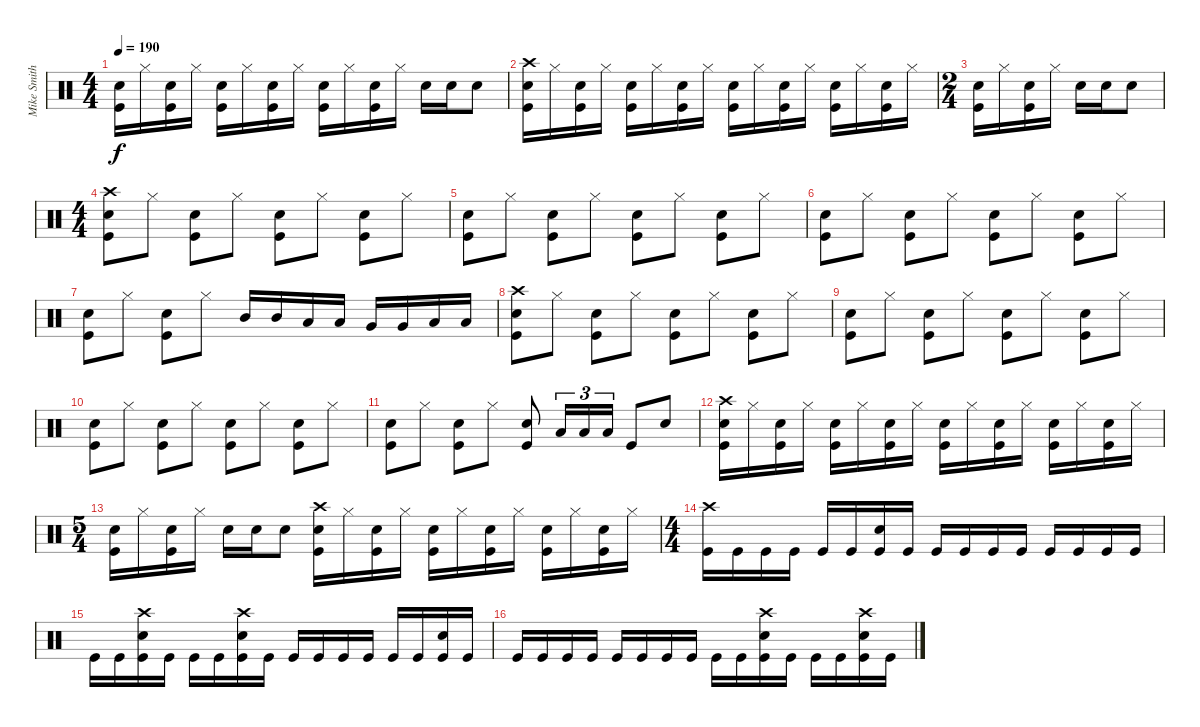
\track ("Mike Smith" "Mike Smith") {instrument percussion}
\staff
\articulation defaults
\ts (4 4)
\tempo 190
\clef neutral
\ks c
("Snare (hit) 2" "Kick (hit)").16{dy f} "Hi-Hat (closed)".16 ("Snare (hit) 2" "Kick (hit)").16 "Hi-Hat (closed)".16 ("Snare (hit) 2" "Kick (hit)").16 "Hi-Hat (closed)".16 ("Snare (hit) 2" "Kick (hit)").16 "Hi-Hat (closed)".16 ("Snare (hit) 2" "Kick (hit)").16 "Hi-Hat (closed)".16 ("Snare (hit) 2" "Kick (hit)").16 "Hi-Hat (closed)".16 "Snare (hit) 2".16 "Snare (hit) 2".16 "Snare (hit) 2".8 |
("Crash high (hit)" "Snare (hit) 2" "Kick (hit)").16 "Hi-Hat (closed)".16 ("Snare (hit) 2" "Kick (hit)").16 "Hi-Hat (closed)".16 ("Snare (hit) 2" "Kick (hit)").16 "Hi-Hat (closed)".16 ("Snare (hit) 2" "Kick (hit)").16 "Hi-Hat (closed)".16 ("Snare (hit) 2" "Kick (hit)").16 "Hi-Hat (closed)".16 ("Snare (hit) 2" "Kick (hit)").16 "Hi-Hat (closed)".16 ("Snare (hit) 2" "Kick (hit)").16 "Hi-Hat (closed)".16 ("Snare (hit) 2" "Kick (hit)").16 "Hi-Hat (closed)".16 |
\ts (2 4)
("Snare (hit) 2" "Kick (hit)").16 "Hi-Hat (closed)".16 ("Snare (hit) 2" "Kick (hit)").16 "Hi-Hat (closed)".16 "Snare (hit) 2".16 "Snare (hit) 2".16 "Snare (hit) 2".8 |
\ts (4 4)
("Crash high (hit)" "Snare (hit) 2" "Kick (hit)").8 "Hi-Hat (closed)".8 ("Snare (hit) 2" "Kick (hit)").8 "Hi-Hat (closed)".8 ("Snare (hit) 2" "Kick (hit)").8 "Hi-Hat (closed)".8 ("Snare (hit) 2" "Kick (hit)").8 "Hi-Hat (closed)".8 |
("Snare (hit) 2" "Kick (hit)").8 "Hi-Hat (closed)".8 ("Snare (hit) 2" "Kick (hit)").8 "Hi-Hat (closed)".8 ("Snare (hit) 2" "Kick (hit)").8 "Hi-Hat (closed)".8 ("Snare (hit) 2" "Kick (hit)").8 "Hi-Hat (closed)".8 |
("Snare (hit) 2" "Kick (hit)").8 "Hi-Hat (closed)".8 ("Snare (hit) 2" "Kick (hit)").8 "Hi-Hat (closed)".8 ("Snare (hit) 2" "Kick (hit)").8 "Hi-Hat (closed)".8 ("Snare (hit) 2" "Kick (hit)").8 "Hi-Hat (closed)".8 |
("Snare (hit) 2" "Kick (hit)").8 "Hi-Hat (closed)".8 ("Snare (hit) 2" "Kick (hit)").8 "Hi-Hat (closed)".8 "Mid Tom (hit)".16 "Mid Tom (hit)".16 "Low Tom (hit)".16 "Low Tom (hit)".16 "Very Low Tom (hit)".16 "Very Low Tom (hit)".16 "Low Floor Tom (hit)".16 "Low Floor Tom (hit)".16 |
("Crash high (hit)" "Snare (hit) 2" "Kick (hit)").8 "Hi-Hat (closed)".8 ("Snare (hit) 2" "Kick (hit)").8 "Hi-Hat (closed)".8 ("Snare (hit) 2" "Kick (hit)").8 "Hi-Hat (closed)".8 ("Snare (hit) 2" "Kick (hit)").8 "Hi-Hat (closed)".8 |
("Snare (hit) 2" "Kick (hit)").8 "Hi-Hat (closed)".8 ("Snare (hit) 2" "Kick (hit)").8 "Hi-Hat (closed)".8 ("Snare (hit) 2" "Kick (hit)").8 "Hi-Hat (closed)".8 ("Snare (hit) 2" "Kick (hit)").8 "Hi-Hat (closed)".8 |
("Snare (hit) 2" "Kick (hit)").8 "Hi-Hat (closed)".8 ("Snare (hit) 2" "Kick (hit)").8 "Hi-Hat (closed)".8 ("Snare (hit) 2" "Kick (hit)").8 "Hi-Hat (closed)".8 ("Snare (hit) 2" "Kick (hit)").8 "Hi-Hat (closed)".8 |
("Snare (hit) 2" "Kick (hit)").8 "Hi-Hat (closed)".8 ("Snare (hit) 2" "Kick (hit)").8 "Hi-Hat (closed)".8 ("Snare (hit) 2" "Kick (hit)").8 "Low Floor Tom (hit)".16{tu (3 2)} "Low Floor Tom (hit)".16{tu (3 2)} "Low Floor Tom (hit)".16{tu (3 2)} "Kick (hit)".8 "Snare (hit) 2".8 |
("Crash high (hit)" "Snare (hit) 2" "Kick (hit)").16 "Hi-Hat (closed)".16 ("Snare (hit) 2" "Kick (hit)").16 "Hi-Hat (closed)".16 ("Snare (hit) 2" "Kick (hit)").16 "Hi-Hat (closed)".16 ("Snare (hit) 2" "Kick (hit)").16 "Hi-Hat (closed)".16 ("Snare (hit) 2" "Kick (hit)").16 "Hi-Hat (closed)".16 ("Snare (hit) 2" "Kick (hit)").16 "Hi-Hat (closed)".16 ("Snare (hit) 2" "Kick (hit)").16 "Hi-Hat (closed)".16 ("Snare (hit) 2" "Kick (hit)").16 "Hi-Hat (closed)".16 |
\ts (5 4)
("Snare (hit) 2" "Kick (hit)").16 "Hi-Hat (closed)".16 ("Snare (hit) 2" "Kick (hit)").16 "Hi-Hat (closed)".16 "Snare (hit) 2".16 "Snare (hit) 2".16 "Snare (hit) 2".8 ("Crash high (hit)" "Snare (hit) 2" "Kick (hit)").16 "Hi-Hat (closed)".16 ("Snare (hit) 2" "Kick (hit)").16 "Hi-Hat (closed)".16 ("Snare (hit) 2" "Kick (hit)").16 "Hi-Hat (closed)".16 ("Snare (hit) 2" "Kick (hit)").16 "Hi-Hat (closed)".16 ("Snare (hit) 2" "Kick (hit)").16 "Hi-Hat (closed)".16 ("Snare (hit) 2" "Kick (hit)").16 "Hi-Hat (closed)".16 |
\ts (4 4)
("Crash high (hit)" "Kick (hit)").16 "Kick (hit)".16 "Kick (hit)".16 "Kick (hit)".16 "Kick (hit)".16 "Kick (hit)".16 ("Snare (hit) 2" "Kick (hit)").16 "Kick (hit)".16 "Kick (hit)".16 "Kick (hit)".16 "Kick (hit)".16 "Kick (hit)".16 "Kick (hit)".16 "Kick (hit)".16 "Kick (hit)".16 "Kick (hit)".16 |
"Kick (hit)".16 "Kick (hit)".16 ("Crash high (hit)" "Snare (hit) 2" "Kick (hit)").16 "Kick (hit)".16 "Kick (hit)".16 "Kick (hit)".16 ("Crash high (hit)" "Snare (hit) 2" "Kick (hit)").16 "Kick (hit)".16 "Kick (hit)".16 "Kick (hit)".16 "Kick (hit)".16 "Kick (hit)".16 "Kick (hit)".16 "Kick (hit)".16 ("Snare (hit) 2" "Kick (hit)").16 "Kick (hit)".16 |
"Kick (hit)".16 "Kick (hit)".16 "Kick (hit)".16 "Kick (hit)".16 "Kick (hit)".16 "Kick (hit)".16 "Kick (hit)".16 "Kick (hit)".16 "Kick (hit)".16 "Kick (hit)".16 ("Crash high (hit)" "Snare (hit) 2" "Kick (hit)").16 "Kick (hit)".16 "Kick (hit)".16 "Kick (hit)".16 ("Crash high (hit)" "Snare (hit) 2" "Kick (hit)").16 "Kick (hit)".16
